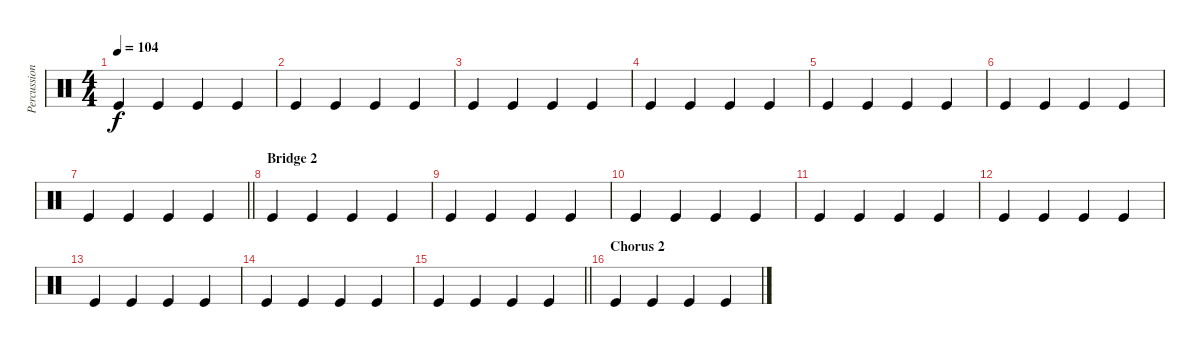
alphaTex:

\track ("Percussioni" "Percussion") {instrument percussion}
\staff {score}
\articulation defaults
\ts (4 4)
\tempo 104
\clef neutral
\ks c "Kick (hit)".4{dy f} "Kick (hit)".4 "Kick (hit)".4 "Kick (hit)".4
|
"Kick (hit)".4 "Kick (hit)".4 "Kick (hit)".4 "Kick (hit)".4 |
"Kick (hit)".4 "Kick (hit)".4 "Kick (hit)".4 "Kick (hit)".4 |
"Kick (hit)".4 "Kick (hit)".4 "Kick (hit)".4 "Kick (hit)".4 |
"Kick (hit)".4 "Kick (hit)".4 "Kick (hit)".4 "Kick (hit)".4 |
"Kick (hit)".4 "Kick (hit)".4 "Kick (hit)".4 "Kick (hit)".4 |
\barLineRight lightlight "Kick (hit)".4 "Kick (hit)".4 "Kick (hit)".4 "Kick (hit)".4
|
\section ("" "Bridge 2")
"Kick (hit)".4 "Kick (hit)".4 "Kick (hit)".4 "Kick (hit)".4 |
"Kick (hit)".4 "Kick (hit)".4 "Kick (hit)".4 "Kick (hit)".4 |
"Kick (hit)".4 "Kick (hit)".4 "Kick (hit)".4 "Kick (hit)".4 |
"Kick (hit)".4 "Kick (hit)".4 "Kick (hit)".4 "Kick (hit)".4 |
"Kick (hit)".4 "Kick (hit)".4 "Kick (hit)".4 "Kick (hit)".4 |
"Kick (hit)".4 "Kick (hit)".4 "Kick (hit)".4 "Kick (hit)".4 |
"Kick (hit)".4 "Kick (hit)".4 "Kick (hit)".4 "Kick (hit)".4 |
\barLineRight lightlight "Kick (hit)".4 "Kick (hit)".4 "Kick (hit)".4 "Kick (hit)".4
|
\section ("" "Chorus 2")
"Kick (hit)".4 "Kick (hit)".4 "Kick (hit)".4 "Kick (hit)".4
